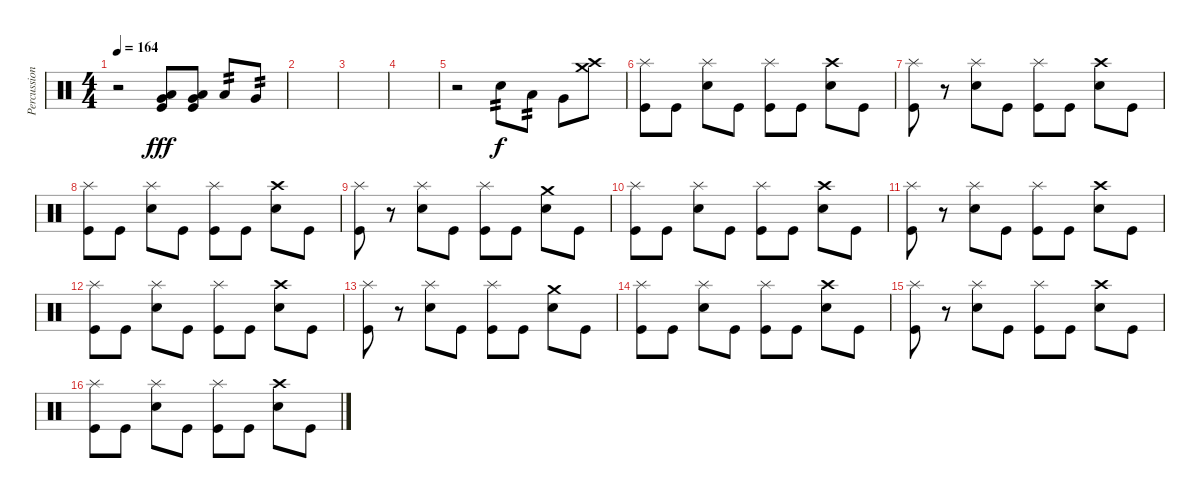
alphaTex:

\track ("Percussion" "Percussion") {instrument percussion}
\staff {score}
\articulation defaults
\ts (4 4)
\tempo 164
\clef neutral
\ks c
r.2{dy ff} ("Very Low Tom (hit)" "Low Floor Tom (hit)" "Kick (hit)").8{dy fff} ("Very Low Tom (hit)" "Low Floor Tom (hit)" "Kick (hit)").8 "Low Tom (hit)".8{tp 2} "Very Low Tom (hit)".8{tp 2} |
|
|
|
r.2 "Electric Snare (hit)".8{tp 2 dy f} "Low Tom (hit)".8{tp 2} "Very Low Tom (hit)".8 ("Crash medium (hit)" "Crash high (hit)").8 |
("Splash (hit)" "Kick (hit)").8 "Kick (hit)".8 ("Splash (hit)" "Electric Snare (hit)").8 "Kick (hit)".8 ("Splash (hit)" "Kick (hit)").8 "Kick (hit)".8 ("Crash high (hit)" "Electric Snare (hit)").8 "Kick (hit)".8 |
("Splash (hit)" "Kick (hit)").8 r.8 ("Splash (hit)" "Electric Snare (hit)").8 "Kick (hit)".8 ("Splash (hit)" "Kick (hit)").8 "Kick (hit)".8 ("Crash high (hit)" "Electric Snare (hit)").8 "Kick (hit)".8 |
("Splash (hit)" "Kick (hit)").8 "Kick (hit)".8 ("Splash (hit)" "Electric Snare (hit)").8 "Kick (hit)".8 ("Splash (hit)" "Kick (hit)").8 "Kick (hit)".8 ("Crash high (hit)" "Electric Snare (hit)").8 "Kick (hit)".8 |
("Splash (hit)" "Kick (hit)").8 r.8 ("Splash (hit)" "Electric Snare (hit)").8 "Kick (hit)".8 ("Splash (hit)" "Kick (hit)").8 "Kick (hit)".8 ("Crash medium (hit)" "Electric Snare (hit)").8 "Kick (hit)".8 |
("Splash (hit)" "Kick (hit)").8 "Kick (hit)".8 ("Splash (hit)" "Electric Snare (hit)").8 "Kick (hit)".8 ("Splash (hit)" "Kick (hit)").8 "Kick (hit)".8 ("Crash high (hit)" "Electric Snare (hit)").8 "Kick (hit)".8 |
("Splash (hit)" "Kick (hit)").8 r.8 ("Splash (hit)" "Electric Snare (hit)").8 "Kick (hit)".8 ("Splash (hit)" "Kick (hit)").8 "Kick (hit)".8 ("Crash high (hit)" "Electric Snare (hit)").8 "Kick (hit)".8 |
("Splash (hit)" "Kick (hit)").8 "Kick (hit)".8 ("Splash (hit)" "Electric Snare (hit)").8 "Kick (hit)".8 ("Splash (hit)" "Kick (hit)").8 "Kick (hit)".8 ("Crash high (hit)" "Electric Snare (hit)").8 "Kick (hit)".8 |
("Splash (hit)" "Kick (hit)").8 r.8 ("Splash (hit)" "Electric Snare (hit)").8 "Kick (hit)".8 ("Splash (hit)" "Kick (hit)").8 "Kick (hit)".8 ("Crash medium (hit)" "Electric Snare (hit)").8 "Kick (hit)".8 |
("Splash (hit)" "Kick (hit)").8 "Kick (hit)".8 ("Splash (hit)" "Electric Snare (hit)").8 "Kick (hit)".8 ("Splash (hit)" "Kick (hit)").8 "Kick (hit)".8 ("Crash high (hit)" "Electric Snare (hit)").8 "Kick (hit)".8 |
("Splash (hit)" "Kick (hit)").8 r.8 ("Splash (hit)" "Electric Snare (hit)").8 "Kick (hit)".8 ("Splash (hit)" "Kick (hit)").8 "Kick (hit)".8 ("Crash high (hit)" "Electric Snare (hit)").8 "Kick (hit)".8 |
("Splash (hit)" "Kick (hit)").8 "Kick (hit)".8 ("Splash (hit)" "Electric Snare (hit)").8 "Kick (hit)".8 ("Splash (hit)" "Kick (hit)").8 "Kick (hit)".8 ("Crash high (hit)" "Electric Snare (hit)").8 "Kick (hit)".8
